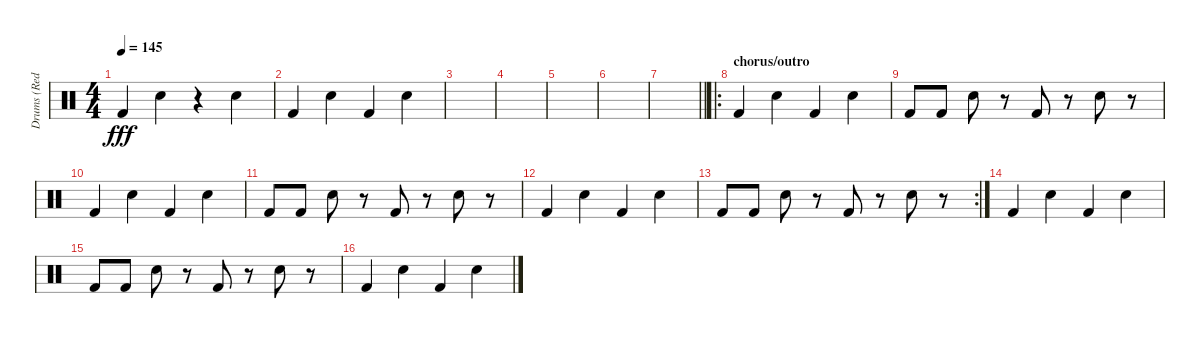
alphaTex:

\track ("Drums (Red)" "Drums (Red") {instrument percussion}
\staff {score}
\articulation defaults
\ts (4 4)
\tempo 145
\clef neutral
\ks c "Kick (hit) 2".4{dy fff} "Electric Snare (hit)".4
r.4 "Electric Snare (hit)".4 |
"Kick (hit) 2".4 "Electric Snare (hit)".4 "Kick (hit) 2".4 "Electric Snare (hit)".4 |
|
|
|
|
\barLineRight lightlight
|
\ro
\section ("" "chorus/outro")
"Kick (hit) 2".4 "Electric Snare (hit)".4 "Kick (hit) 2".4 "Electric Snare (hit)".4 |
"Kick (hit) 2".8 "Kick (hit) 2".8 "Electric Snare (hit)".8 r.8 "Kick (hit) 2".8 r.8 "Electric Snare (hit)".8 r.8 |
"Kick (hit) 2".4 "Electric Snare (hit)".4 "Kick (hit) 2".4 "Electric Snare (hit)".4 |
"Kick (hit) 2".8 "Kick (hit) 2".8 "Electric Snare (hit)".8 r.8 "Kick (hit) 2".8 r.8 "Electric Snare (hit)".8 r.8 |
"Kick (hit) 2".4 "Electric Snare (hit)".4 "Kick (hit) 2".4 "Electric Snare (hit)".4 |
\rc 2 "Kick (hit) 2".8 "Kick (hit) 2".8 "Electric Snare (hit)".8
r.8 "Kick (hit) 2".8 r.8 "Electric Snare (hit)".8 r.8 |
"Kick (hit) 2".4 "Electric Snare (hit)".4 "Kick (hit) 2".4 "Electric Snare (hit)".4 |
"Kick (hit) 2".8 "Kick (hit) 2".8 "Electric Snare (hit)".8 r.8 "Kick (hit) 2".8 r.8 "Electric Snare (hit)".8 r.8 |
"Kick (hit) 2".4 "Electric Snare (hit)".4 "Kick (hit) 2".4 "Electric Snare (hit)".4
